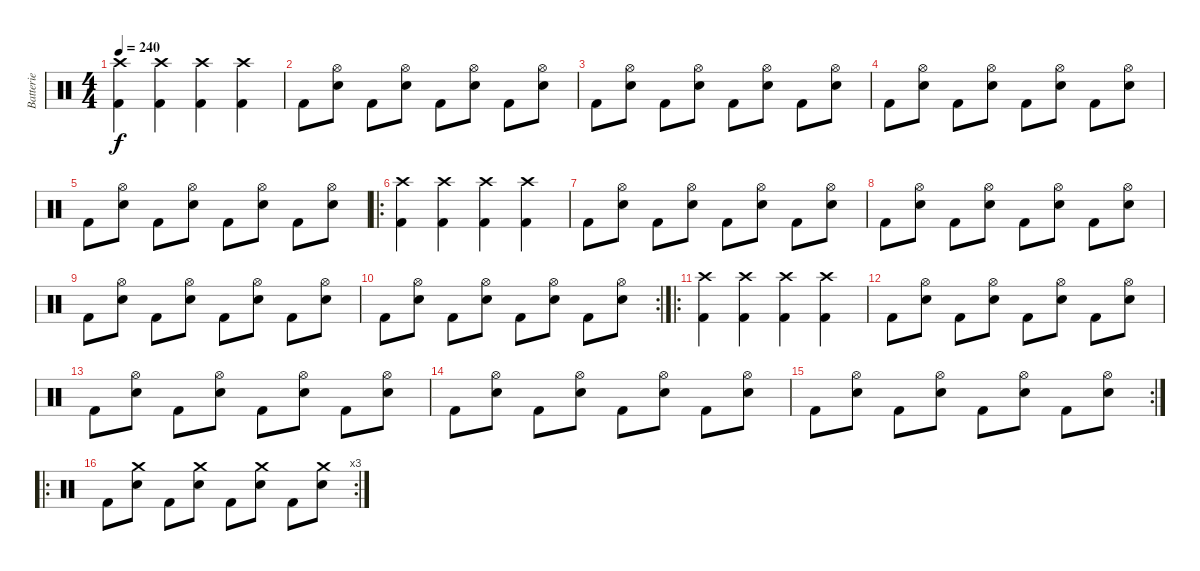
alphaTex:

\track ("Batterie" "Batterie") {instrument percussion}
\staff {score}
\articulation defaults
\ts (4 4)
\tempo 240
\clef neutral
\ks c
("Crash high (hit)" "Kick (hit) 2").4{dy f} ("Crash high (hit)" "Kick (hit) 2").4 ("Crash high (hit)" "Kick (hit) 2").4 ("Crash high (hit)" "Kick (hit) 2").4 |
"Kick (hit) 2".8 ("Hi-Hat (open)" "Snare (hit) 2").8 "Kick (hit) 2".8 ("Hi-Hat (open)" "Snare (hit) 2").8 "Kick (hit) 2".8 ("Hi-Hat (open)" "Snare (hit) 2").8 "Kick (hit) 2".8 ("Hi-Hat (open)" "Snare (hit) 2").8 |
"Kick (hit) 2".8 ("Hi-Hat (open)" "Snare (hit) 2").8 "Kick (hit) 2".8 ("Hi-Hat (open)" "Snare (hit) 2").8 "Kick (hit) 2".8 ("Hi-Hat (open)" "Snare (hit) 2").8 "Kick (hit) 2".8 ("Hi-Hat (open)" "Snare (hit) 2").8 |
"Kick (hit) 2".8 ("Hi-Hat (open)" "Snare (hit) 2").8 "Kick (hit) 2".8 ("Hi-Hat (open)" "Snare (hit) 2").8 "Kick (hit) 2".8 ("Hi-Hat (open)" "Snare (hit) 2").8 "Kick (hit) 2".8 ("Hi-Hat (open)" "Snare (hit) 2").8 |
"Kick (hit) 2".8 ("Hi-Hat (open)" "Snare (hit) 2").8 "Kick (hit) 2".8 ("Hi-Hat (open)" "Snare (hit) 2").8 "Kick (hit) 2".8 ("Hi-Hat (open)" "Snare (hit) 2").8 "Kick (hit) 2".8 ("Hi-Hat (open)" "Snare (hit) 2").8 |
\ro
("Crash high (hit)" "Kick (hit) 2").4 ("Crash high (hit)" "Kick (hit) 2").4 ("Crash high (hit)" "Kick (hit) 2").4 ("Crash high (hit)" "Kick (hit) 2").4 |
"Kick (hit) 2".8 ("Hi-Hat (open)" "Snare (hit) 2").8 "Kick (hit) 2".8 ("Hi-Hat (open)" "Snare (hit) 2").8 "Kick (hit) 2".8 ("Hi-Hat (open)" "Snare (hit) 2").8 "Kick (hit) 2".8 ("Hi-Hat (open)" "Snare (hit) 2").8 |
"Kick (hit) 2".8 ("Hi-Hat (open)" "Snare (hit) 2").8 "Kick (hit) 2".8 ("Hi-Hat (open)" "Snare (hit) 2").8 "Kick (hit) 2".8 ("Hi-Hat (open)" "Snare (hit) 2").8 "Kick (hit) 2".8 ("Hi-Hat (open)" "Snare (hit) 2").8 |
"Kick (hit) 2".8 ("Hi-Hat (open)" "Snare (hit) 2").8 "Kick (hit) 2".8 ("Hi-Hat (open)" "Snare (hit) 2").8 "Kick (hit) 2".8 ("Hi-Hat (open)" "Snare (hit) 2").8 "Kick (hit) 2".8 ("Hi-Hat (open)" "Snare (hit) 2").8 |
\rc 2 "Kick (hit) 2".8
("Hi-Hat (open)" "Snare (hit) 2").8 "Kick (hit) 2".8 ("Hi-Hat (open)" "Snare (hit) 2").8 "Kick (hit) 2".8 ("Hi-Hat (open)" "Snare (hit) 2").8 "Kick (hit) 2".8 ("Hi-Hat (open)" "Snare (hit) 2").8 |
\ro
("Crash high (hit)" "Kick (hit) 2").4 ("Crash high (hit)" "Kick (hit) 2").4 ("Crash high (hit)" "Kick (hit) 2").4 ("Crash high (hit)" "Kick (hit) 2").4 |
"Kick (hit) 2".8 ("Hi-Hat (open)" "Snare (hit) 2").8 "Kick (hit) 2".8 ("Hi-Hat (open)" "Snare (hit) 2").8 "Kick (hit) 2".8 ("Hi-Hat (open)" "Snare (hit) 2").8 "Kick (hit) 2".8 ("Hi-Hat (open)" "Snare (hit) 2").8 |
"Kick (hit) 2".8 ("Hi-Hat (open)" "Snare (hit) 2").8 "Kick (hit) 2".8 ("Hi-Hat (open)" "Snare (hit) 2").8 "Kick (hit) 2".8 ("Hi-Hat (open)" "Snare (hit) 2").8 "Kick (hit) 2".8 ("Hi-Hat (open)" "Snare (hit) 2").8 |
"Kick (hit) 2".8 ("Hi-Hat (open)" "Snare (hit) 2").8 "Kick (hit) 2".8 ("Hi-Hat (open)" "Snare (hit) 2").8 "Kick (hit) 2".8 ("Hi-Hat (open)" "Snare (hit) 2").8 "Kick (hit) 2".8 ("Hi-Hat (open)" "Snare (hit) 2").8 |
\rc 2 "Kick (hit) 2".8
("Hi-Hat (open)" "Snare (hit) 2").8 "Kick (hit) 2".8 ("Hi-Hat (open)" "Snare (hit) 2").8 "Kick (hit) 2".8 ("Hi-Hat (open)" "Snare (hit) 2").8 "Kick (hit) 2".8 ("Hi-Hat (open)" "Snare (hit) 2").8 |
\ro
\rc 3 "Kick (hit) 2".8
("Crash medium (hit)" "Snare (hit) 2").8 "Kick (hit) 2".8 ("Crash medium (hit)" "Snare (hit) 2").8 "Kick (hit) 2".8 ("Crash medium (hit)" "Snare (hit) 2").8 "Kick (hit) 2".8 ("Crash medium (hit)" "Snare (hit) 2").8
